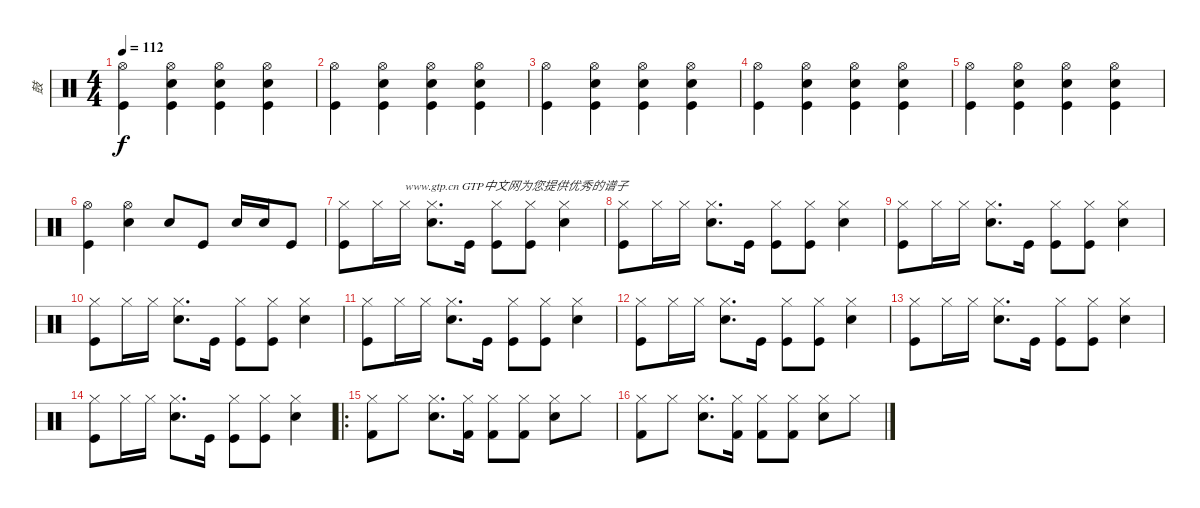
\track ("鼓" "鼓") {instrument percussion}
\staff {score}
\articulation defaults
\ts (4 4)
\tempo 112
\clef neutral
\ks c
("Hi-Hat (open)" "Kick (hit)").4{dy f} ("Hi-Hat (open)" "Electric Snare (hit)" "Kick (hit)").4 ("Hi-Hat (open)" "Electric Snare (hit)" "Kick (hit)").4 ("Hi-Hat (open)" "Electric Snare (hit)" "Kick (hit)").4 |
("Hi-Hat (open)" "Kick (hit)").4 ("Hi-Hat (open)" "Electric Snare (hit)" "Kick (hit)").4 ("Hi-Hat (open)" "Electric Snare (hit)" "Kick (hit)").4 ("Hi-Hat (open)" "Electric Snare (hit)" "Kick (hit)").4 |
("Hi-Hat (open)" "Kick (hit)").4 ("Hi-Hat (open)" "Electric Snare (hit)" "Kick (hit)").4 ("Hi-Hat (open)" "Electric Snare (hit)" "Kick (hit)").4 ("Hi-Hat (open)" "Electric Snare (hit)" "Kick (hit)").4 |
("Hi-Hat (open)" "Kick (hit)").4 ("Hi-Hat (open)" "Electric Snare (hit)" "Kick (hit)").4 ("Hi-Hat (open)" "Electric Snare (hit)" "Kick (hit)").4 ("Hi-Hat (open)" "Electric Snare (hit)" "Kick (hit)").4 |
("Hi-Hat (open)" "Kick (hit)").4 ("Hi-Hat (open)" "Electric Snare (hit)" "Kick (hit)").4 ("Hi-Hat (open)" "Electric Snare (hit)" "Kick (hit)").4 ("Hi-Hat (open)" "Electric Snare (hit)" "Kick (hit)").4 |
("Hi-Hat (open)" "Kick (hit)").4 ("Hi-Hat (open)" "Electric Snare (hit)").4 "Electric Snare (hit)".8 "Kick (hit)".8 "Electric Snare (hit)".16 "Electric Snare (hit)".16 "Kick (hit)".8 |
("Hi-Hat (closed)" "Kick (hit)").8 "Hi-Hat (closed)".16 "Hi-Hat (closed)".16{txt "www.gtp.cn GTP中文网为您提供优秀的谱子"} ("Hi-Hat (closed)" "Electric Snare (hit)").8{d} "Kick (hit)".16 ("Hi-Hat (closed)" "Kick (hit)").8 ("Hi-Hat (closed)" "Kick (hit)").8 ("Hi-Hat (closed)" "Electric Snare (hit)").4 |
("Hi-Hat (closed)" "Kick (hit)").8 "Hi-Hat (closed)".16 "Hi-Hat (closed)".16 ("Hi-Hat (closed)" "Electric Snare (hit)").8{d} "Kick (hit)".16 ("Hi-Hat (closed)" "Kick (hit)").8 ("Hi-Hat (closed)" "Kick (hit)").8 ("Hi-Hat (closed)" "Electric Snare (hit)").4 |
("Hi-Hat (closed)" "Kick (hit)").8 "Hi-Hat (closed)".16 "Hi-Hat (closed)".16 ("Hi-Hat (closed)" "Electric Snare (hit)").8{d} "Kick (hit)".16 ("Hi-Hat (closed)" "Kick (hit)").8 ("Hi-Hat (closed)" "Kick (hit)").8 ("Hi-Hat (closed)" "Electric Snare (hit)").4 |
("Hi-Hat (closed)" "Kick (hit)").8 "Hi-Hat (closed)".16 "Hi-Hat (closed)".16 ("Hi-Hat (closed)" "Electric Snare (hit)").8{d} "Kick (hit)".16 ("Hi-Hat (closed)" "Kick (hit)").8 ("Hi-Hat (closed)" "Kick (hit)").8 ("Hi-Hat (closed)" "Electric Snare (hit)").4 |
("Hi-Hat (closed)" "Kick (hit)").8 "Hi-Hat (closed)".16 "Hi-Hat (closed)".16 ("Hi-Hat (closed)" "Electric Snare (hit)").8{d} "Kick (hit)".16 ("Hi-Hat (closed)" "Kick (hit)").8 ("Hi-Hat (closed)" "Kick (hit)").8 ("Hi-Hat (closed)" "Electric Snare (hit)").4 |
("Hi-Hat (closed)" "Kick (hit)").8 "Hi-Hat (closed)".16 "Hi-Hat (closed)".16 ("Hi-Hat (closed)" "Electric Snare (hit)").8{d} "Kick (hit)".16 ("Hi-Hat (closed)" "Kick (hit)").8 ("Hi-Hat (closed)" "Kick (hit)").8 ("Hi-Hat (closed)" "Electric Snare (hit)").4 |
("Hi-Hat (closed)" "Kick (hit)").8 "Hi-Hat (closed)".16 "Hi-Hat (closed)".16 ("Hi-Hat (closed)" "Electric Snare (hit)").8{d} "Kick (hit)".16 ("Hi-Hat (closed)" "Kick (hit)").8 ("Hi-Hat (closed)" "Kick (hit)").8 ("Hi-Hat (closed)" "Electric Snare (hit)").4 |
("Hi-Hat (closed)" "Kick (hit)").8 "Hi-Hat (closed)".16 "Hi-Hat (closed)".16 ("Hi-Hat (closed)" "Electric Snare (hit)").8{d} "Kick (hit)".16 ("Hi-Hat (closed)" "Kick (hit)").8 ("Hi-Hat (closed)" "Kick (hit)").8 ("Hi-Hat (closed)" "Electric Snare (hit)").4 |
\ro
("Hi-Hat (closed)" "Kick (hit) 2").8 "Hi-Hat (closed)".8 ("Hi-Hat (closed)" "Snare (hit) 2").8{d} ("Hi-Hat (closed)" "Kick (hit) 2").16 ("Hi-Hat (closed)" "Kick (hit) 2").8 ("Hi-Hat (closed)" "Kick (hit) 2").8 ("Hi-Hat (closed)" "Snare (hit) 2").8 "Hi-Hat (closed)".8 |
("Hi-Hat (closed)" "Kick (hit) 2").8 "Hi-Hat (closed)".8 ("Hi-Hat (closed)" "Snare (hit) 2").8{d} ("Hi-Hat (closed)" "Kick (hit) 2").16 ("Hi-Hat (closed)" "Kick (hit) 2").8 ("Hi-Hat (closed)" "Kick (hit) 2").8 ("Hi-Hat (closed)" "Snare (hit) 2").8 "Hi-Hat (closed)".8
